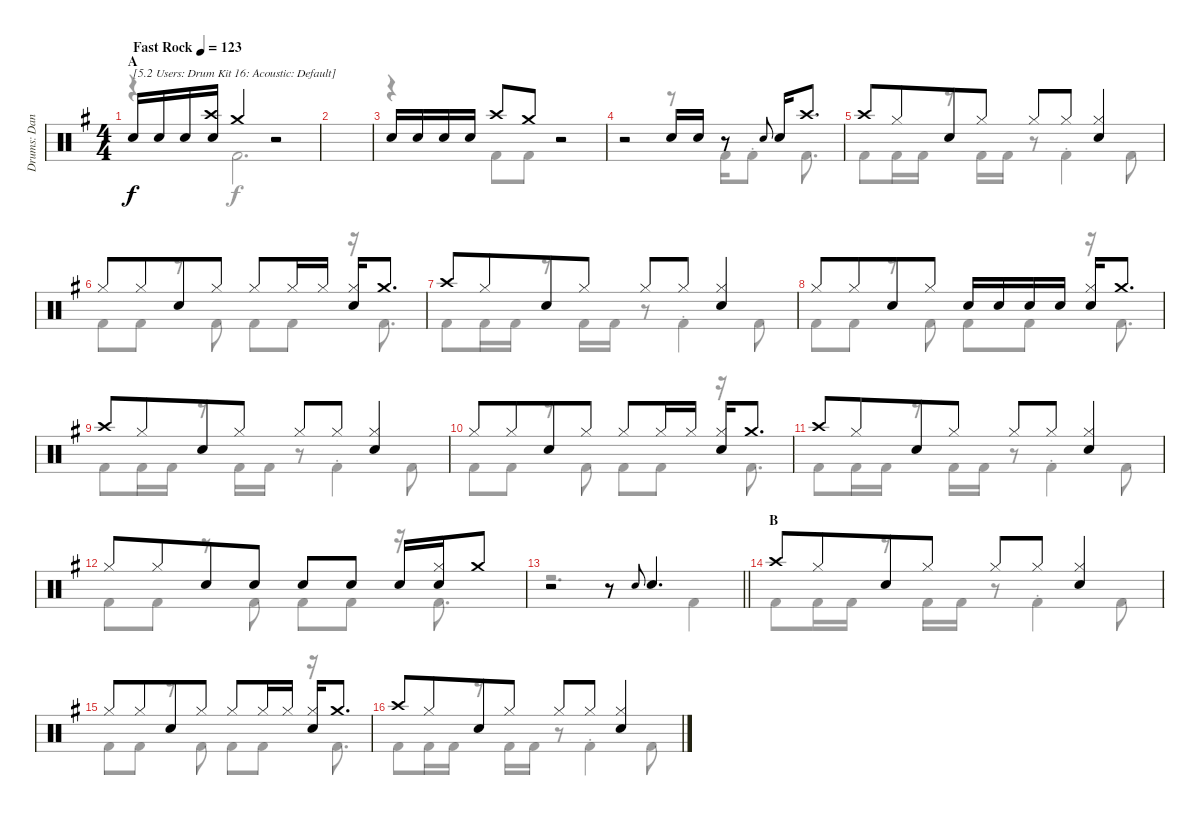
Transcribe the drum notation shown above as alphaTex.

\track ("Drums: Dana" "Drums: Dan") {instrument percussion}
\staff {score}
\articulation defaults
\voice
\ts (4 4)
\section ("" "A")
\tempo (123 "Fast Rock")
\clef neutral
\ks g "Snare (hit) 2".16{txt "[5.2 Users: Drum Kit 16: Acoustic: Default]" dy f} "Snare (hit) 2".16 "Snare (hit) 2".16
("Crash high (hit)" "Snare (hit) 2").16 "Crash medium (hit)".4 r.2 |
|
"Snare (hit) 2".16 "Snare (hit) 2".16 "Snare (hit) 2".16 "Snare (hit) 2".16 "Crash high (hit)".8 "Crash medium (hit)".8 r.2 |
r.2 "Snare (hit) 2".16 "Snare (hit) 2".16 r.8 "Electric Snare (hit)".8{gr onbeat} "Snare (hit) 2".16 "Crash high (hit)".8{d} |
"Crash high (hit)".8 "Hi-Hat (closed)".8{beam merge} "Snare (hit) 2".8 "Hi-Hat (closed)".8 "Hi-Hat (closed)".8 "Hi-Hat (closed)".8 ("Hi-Hat (closed)" "Snare (hit) 2").4 |
"Hi-Hat (closed)".8 "Hi-Hat (closed)".8{beam merge} "Snare (hit) 2".8 "Hi-Hat (closed)".8 "Hi-Hat (closed)".8 "Hi-Hat (closed)".16 "Hi-Hat (closed)".16 ("Hi-Hat (closed)" "Snare (hit) 2").16 "Crash medium (hit)".8{d} |
"Crash high (hit)".8 "Hi-Hat (closed)".8{beam merge} "Snare (hit) 2".8 "Hi-Hat (closed)".8 "Hi-Hat (closed)".8 "Hi-Hat (closed)".8 ("Hi-Hat (closed)" "Snare (hit) 2").4 |
"Hi-Hat (closed)".8 "Hi-Hat (closed)".8{beam merge} "Snare (hit) 2".8 "Hi-Hat (closed)".8 "Snare (hit) 2".16 "Snare (hit) 2".16 "Snare (hit) 2".16 "Snare (hit) 2".16 ("Hi-Hat (closed)" "Snare (hit) 2").16 "Crash medium (hit)".8{d} |
"Crash high (hit)".8 "Hi-Hat (closed)".8{beam merge} "Snare (hit) 2".8 "Hi-Hat (closed)".8 "Hi-Hat (closed)".8 "Hi-Hat (closed)".8 ("Hi-Hat (closed)" "Snare (hit) 2").4 |
"Hi-Hat (closed)".8 "Hi-Hat (closed)".8{beam merge} "Snare (hit) 2".8 "Hi-Hat (closed)".8 "Hi-Hat (closed)".8 "Hi-Hat (closed)".16 "Hi-Hat (closed)".16 ("Hi-Hat (closed)" "Snare (hit) 2").16 "Crash medium (hit)".8{d} |
"Crash high (hit)".8 "Hi-Hat (closed)".8{beam merge} "Snare (hit) 2".8 "Hi-Hat (closed)".8 "Hi-Hat (closed)".8 "Hi-Hat (closed)".8 ("Hi-Hat (closed)" "Snare (hit) 2").4 |
"Hi-Hat (closed)".8 "Hi-Hat (closed)".8{beam merge} "Snare (hit) 2".8 "Snare (hit) 2".8 "Snare (hit) 2".8 "Snare (hit) 2".8 "Snare (hit) 2".16 ("Hi-Hat (closed)" "Snare (hit) 2").16 "Crash medium (hit)".8 |
\barLineRight lightlight
r.2 r.8 "Electric Snare (hit)".8{gr onbeat} "Snare (hit) 2".4{d} |
\section ("" "B")
"Crash high (hit)".8 "Hi-Hat (closed)".8{beam merge} "Snare (hit) 2".8 "Hi-Hat (closed)".8 "Hi-Hat (closed)".8 "Hi-Hat (closed)".8 ("Hi-Hat (closed)" "Snare (hit) 2").4 |
"Hi-Hat (closed)".8 "Hi-Hat (closed)".8{beam merge} "Snare (hit) 2".8 "Hi-Hat (closed)".8 "Hi-Hat (closed)".8 "Hi-Hat (closed)".16 "Hi-Hat (closed)".16 ("Hi-Hat (closed)" "Snare (hit) 2").16 "Crash medium (hit)".8{d} |
"Crash high (hit)".8 "Hi-Hat (closed)".8{beam merge} "Snare (hit) 2".8 "Hi-Hat (closed)".8 "Hi-Hat (closed)".8 "Hi-Hat (closed)".8 ("Hi-Hat (closed)" "Snare (hit) 2").4
\voice
\clef neutral
\ottava regular
\simile none
\ks g
r.4{dy f} "Kick (hit) 2".2{d} |
|
r.4 "Kick (hit) 2".8 "Kick (hit) 2".8 r.2 |
r.2 r.8 "Kick (hit) 2".16 "Kick (hit) 2"{st}.8 "Kick (hit) 2".8{d} |
"Kick (hit) 2".8 "Kick (hit) 2".16 "Kick (hit) 2".16 r.8 "Kick (hit) 2".16 "Kick (hit) 2".16 r.8 "Kick (hit) 2"{st}.4 "Kick (hit) 2".8 |
"Kick (hit) 2".8 "Kick (hit) 2".8 r.8 "Kick (hit) 2".8 "Kick (hit) 2".8 "Kick (hit) 2".8 r.16 "Kick (hit) 2".8{d} |
"Kick (hit) 2".8 "Kick (hit) 2".16 "Kick (hit) 2".16 r.8 "Kick (hit) 2".16 "Kick (hit) 2".16 r.8 "Kick (hit) 2"{st}.4 "Kick (hit) 2".8 |
"Kick (hit) 2".8 "Kick (hit) 2".8 r.8 "Kick (hit) 2".8 "Kick (hit) 2".8 "Kick (hit) 2".8 r.16 "Kick (hit) 2".8{d} |
"Kick (hit) 2".8 "Kick (hit) 2".16 "Kick (hit) 2".16 r.8 "Kick (hit) 2".16 "Kick (hit) 2".16 r.8 "Kick (hit) 2"{st}.4 "Kick (hit) 2".8 |
"Kick (hit) 2".8 "Kick (hit) 2".8 r.8 "Kick (hit) 2".8 "Kick (hit) 2".8 "Kick (hit) 2".8 r.16 "Kick (hit) 2".8{d} |
"Kick (hit) 2".8 "Kick (hit) 2".16 "Kick (hit) 2".16 r.8 "Kick (hit) 2".16 "Kick (hit) 2".16 r.8 "Kick (hit) 2"{st}.4 "Kick (hit) 2".8 |
"Kick (hit) 2".8 "Kick (hit) 2".8 r.8 "Kick (hit) 2".8 "Kick (hit) 2".8 "Kick (hit) 2".8 r.16 "Kick (hit) 2".8{d} |
\barLineRight lightlight
r.2{d} "Kick (hit) 2".4 |
"Kick (hit) 2".8 "Kick (hit) 2".16 "Kick (hit) 2".16 r.8 "Kick (hit) 2".16 "Kick (hit) 2".16 r.8 "Kick (hit) 2"{st}.4 "Kick (hit) 2".8 |
"Kick (hit) 2".8 "Kick (hit) 2".8 r.8 "Kick (hit) 2".8 "Kick (hit) 2".8 "Kick (hit) 2".8 r.16 "Kick (hit) 2".8{d} |
"Kick (hit) 2".8 "Kick (hit) 2".16 "Kick (hit) 2".16 r.8 "Kick (hit) 2".16 "Kick (hit) 2".16 r.8 "Kick (hit) 2"{st}.4 "Kick (hit) 2".8
